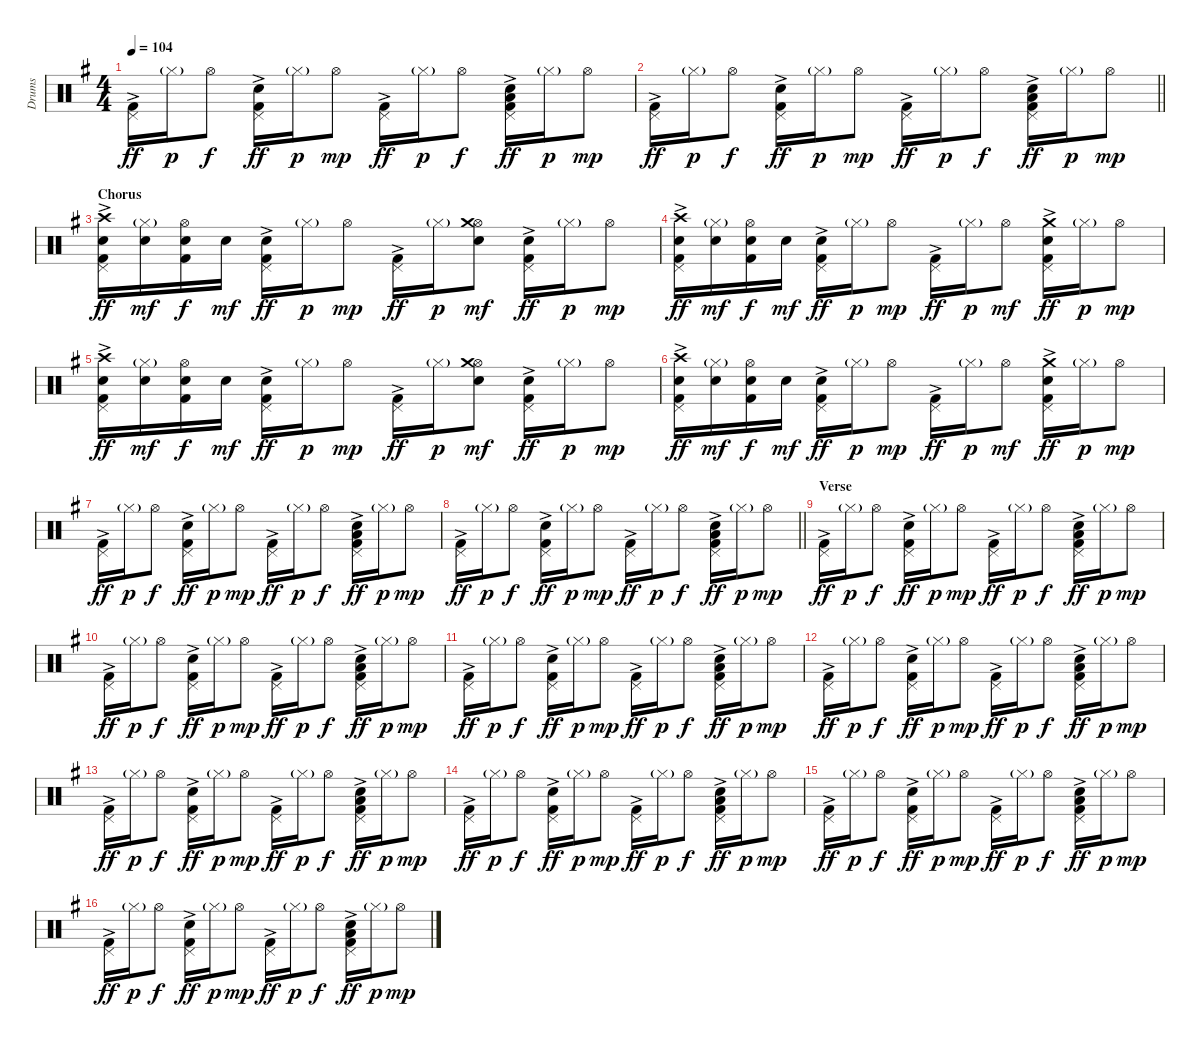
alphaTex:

\track ("Drums" "Drums") {instrument percussion}
\staff {score}
\articulation defaults
\ts (4 4)
\tempo 104
\clef neutral
\ks g
("Pedal Hi-Hat (hit)" "Kick (hit) 2"{ac}).16{dy ff} "Hi-Hat (closed)"{g}.16{dy p} "Hi-Hat (open)".8{dy f} ("Pedal Hi-Hat (hit)" "Snare (hit) 2"{ac} "Kick (hit) 2"{ac}).16{dy ff} "Hi-Hat (closed)"{g}.16{dy p} "Hi-Hat (open)".8{dy mp} ("Pedal Hi-Hat (hit)" "Kick (hit) 2"{ac}).16{dy ff} "Hi-Hat (closed)"{g}.16{dy p} "Hi-Hat (open)".8{dy f} ("Pedal Hi-Hat (hit)" "Snare (hit) 2"{ac} "Low Tom (hit)" "Kick (hit) 2"{ac}).16{dy ff} "Hi-Hat (closed)"{g}.16{dy p} "Hi-Hat (open)".8{dy mp} |
\barLineRight lightlight
("Pedal Hi-Hat (hit)" "Kick (hit) 2"{ac}).16{dy ff} "Hi-Hat (closed)"{g}.16{dy p} "Hi-Hat (open)".8{dy f} ("Pedal Hi-Hat (hit)" "Snare (hit) 2"{ac} "Kick (hit) 2"{ac}).16{dy ff} "Hi-Hat (closed)"{g}.16{dy p} "Hi-Hat (open)".8{dy mp} ("Pedal Hi-Hat (hit)" "Kick (hit) 2"{ac}).16{dy ff} "Hi-Hat (closed)"{g}.16{dy p} "Hi-Hat (open)".8{dy f} ("Pedal Hi-Hat (hit)" "Snare (hit) 2"{ac} "Low Tom (hit)" "Kick (hit) 2"{ac}).16{dy ff} "Hi-Hat (closed)"{g}.16{dy p} "Hi-Hat (open)".8{dy mp} |
\section ("" "Chorus")
("Pedal Hi-Hat (hit)" "Crash high (hit)" "Snare (hit) 2" "Kick (hit) 2"{ac}).16{dy ff} ("Hi-Hat (closed)"{g} "Snare (hit) 2").16{dy mf} ("Hi-Hat (open)" "Snare (hit) 2" "Kick (hit) 2").16{dy f} "Snare (hit) 2".16{dy mf} ("Pedal Hi-Hat (hit)" "Snare (hit) 2"{ac} "Kick (hit) 2"{ac}).16{dy ff} "Hi-Hat (closed)"{g}.16{dy p} "Hi-Hat (open)".8{dy mp} ("Pedal Hi-Hat (hit)" "Kick (hit) 2"{ac}).16{dy ff} "Hi-Hat (closed)"{g}.16{dy p} ("Hi-Hat (open)" "Crash medium (hit)" "Snare (hit) 2").8{dy mf} ("Pedal Hi-Hat (hit)" "Snare (hit) 2"{ac} "Kick (hit) 2"{ac}).16{dy ff} "Hi-Hat (closed)"{g}.16{dy p} "Hi-Hat (open)".8{dy mp} |
("Pedal Hi-Hat (hit)" "Crash high (hit)" "Snare (hit) 2" "Kick (hit) 2"{ac}).16{dy ff} ("Hi-Hat (closed)"{g} "Snare (hit) 2").16{dy mf} ("Hi-Hat (open)" "Snare (hit) 2" "Kick (hit) 2").16{dy f} "Snare (hit) 2".16{dy mf} ("Pedal Hi-Hat (hit)" "Snare (hit) 2"{ac} "Kick (hit) 2"{ac}).16{dy ff} "Hi-Hat (closed)"{g}.16{dy p} "Hi-Hat (open)".8{dy mp} ("Pedal Hi-Hat (hit)" "Kick (hit) 2"{ac}).16{dy ff} "Hi-Hat (closed)"{g}.16{dy p} "Hi-Hat (open)".8{dy mf} ("Pedal Hi-Hat (hit)" "Crash medium (hit)" "Snare (hit) 2"{ac} "Kick (hit) 2"{ac}).16{dy ff} "Hi-Hat (closed)"{g}.16{dy p} "Hi-Hat (open)".8{dy mp} |
("Pedal Hi-Hat (hit)" "Crash high (hit)" "Snare (hit) 2" "Kick (hit) 2"{ac}).16{dy ff} ("Hi-Hat (closed)"{g} "Snare (hit) 2").16{dy mf} ("Hi-Hat (open)" "Snare (hit) 2" "Kick (hit) 2").16{dy f} "Snare (hit) 2".16{dy mf} ("Pedal Hi-Hat (hit)" "Snare (hit) 2"{ac} "Kick (hit) 2"{ac}).16{dy ff} "Hi-Hat (closed)"{g}.16{dy p} "Hi-Hat (open)".8{dy mp} ("Pedal Hi-Hat (hit)" "Kick (hit) 2"{ac}).16{dy ff} "Hi-Hat (closed)"{g}.16{dy p} ("Hi-Hat (open)" "Crash medium (hit)" "Snare (hit) 2").8{dy mf} ("Pedal Hi-Hat (hit)" "Snare (hit) 2"{ac} "Kick (hit) 2"{ac}).16{dy ff} "Hi-Hat (closed)"{g}.16{dy p} "Hi-Hat (open)".8{dy mp} |
("Pedal Hi-Hat (hit)" "Crash high (hit)" "Snare (hit) 2" "Kick (hit) 2"{ac}).16{dy ff} ("Hi-Hat (closed)"{g} "Snare (hit) 2").16{dy mf} ("Hi-Hat (open)" "Snare (hit) 2" "Kick (hit) 2").16{dy f} "Snare (hit) 2".16{dy mf} ("Pedal Hi-Hat (hit)" "Snare (hit) 2"{ac} "Kick (hit) 2"{ac}).16{dy ff} "Hi-Hat (closed)"{g}.16{dy p} "Hi-Hat (open)".8{dy mp} ("Pedal Hi-Hat (hit)" "Kick (hit) 2"{ac}).16{dy ff} "Hi-Hat (closed)"{g}.16{dy p} "Hi-Hat (open)".8{dy mf} ("Pedal Hi-Hat (hit)" "Crash medium (hit)" "Snare (hit) 2"{ac} "Kick (hit) 2"{ac}).16{dy ff} "Hi-Hat (closed)"{g}.16{dy p} "Hi-Hat (open)".8{dy mp} |
("Pedal Hi-Hat (hit)" "Kick (hit) 2"{ac}).16{dy ff} "Hi-Hat (closed)"{g}.16{dy p} "Hi-Hat (open)".8{dy f} ("Pedal Hi-Hat (hit)" "Snare (hit) 2"{ac} "Kick (hit) 2"{ac}).16{dy ff} "Hi-Hat (closed)"{g}.16{dy p} "Hi-Hat (open)".8{dy mp} ("Pedal Hi-Hat (hit)" "Kick (hit) 2"{ac}).16{dy ff} "Hi-Hat (closed)"{g}.16{dy p} "Hi-Hat (open)".8{dy f} ("Pedal Hi-Hat (hit)" "Snare (hit) 2"{ac} "Low Tom (hit)" "Kick (hit) 2"{ac}).16{dy ff} "Hi-Hat (closed)"{g}.16{dy p} "Hi-Hat (open)".8{dy mp} |
\barLineRight lightlight
("Pedal Hi-Hat (hit)" "Kick (hit) 2"{ac}).16{dy ff} "Hi-Hat (closed)"{g}.16{dy p} "Hi-Hat (open)".8{dy f} ("Pedal Hi-Hat (hit)" "Snare (hit) 2"{ac} "Kick (hit) 2"{ac}).16{dy ff} "Hi-Hat (closed)"{g}.16{dy p} "Hi-Hat (open)".8{dy mp} ("Pedal Hi-Hat (hit)" "Kick (hit) 2"{ac}).16{dy ff} "Hi-Hat (closed)"{g}.16{dy p} "Hi-Hat (open)".8{dy f} ("Pedal Hi-Hat (hit)" "Snare (hit) 2"{ac} "Low Tom (hit)" "Kick (hit) 2"{ac}).16{dy ff} "Hi-Hat (closed)"{g}.16{dy p} "Hi-Hat (open)".8{dy mp} |
\section ("" "Verse")
("Pedal Hi-Hat (hit)" "Kick (hit) 2"{ac}).16{dy ff} "Hi-Hat (closed)"{g}.16{dy p} "Hi-Hat (open)".8{dy f} ("Pedal Hi-Hat (hit)" "Snare (hit) 2"{ac} "Kick (hit) 2"{ac}).16{dy ff} "Hi-Hat (closed)"{g}.16{dy p} "Hi-Hat (open)".8{dy mp} ("Pedal Hi-Hat (hit)" "Kick (hit) 2"{ac}).16{dy ff} "Hi-Hat (closed)"{g}.16{dy p} "Hi-Hat (open)".8{dy f} ("Pedal Hi-Hat (hit)" "Snare (hit) 2"{ac} "Low Tom (hit)" "Kick (hit) 2"{ac}).16{dy ff} "Hi-Hat (closed)"{g}.16{dy p} "Hi-Hat (open)".8{dy mp} |
("Pedal Hi-Hat (hit)" "Kick (hit) 2"{ac}).16{dy ff} "Hi-Hat (closed)"{g}.16{dy p} "Hi-Hat (open)".8{dy f} ("Pedal Hi-Hat (hit)" "Snare (hit) 2"{ac} "Kick (hit) 2"{ac}).16{dy ff} "Hi-Hat (closed)"{g}.16{dy p} "Hi-Hat (open)".8{dy mp} ("Pedal Hi-Hat (hit)" "Kick (hit) 2"{ac}).16{dy ff} "Hi-Hat (closed)"{g}.16{dy p} "Hi-Hat (open)".8{dy f} ("Pedal Hi-Hat (hit)" "Snare (hit) 2"{ac} "Low Tom (hit)" "Kick (hit) 2"{ac}).16{dy ff} "Hi-Hat (closed)"{g}.16{dy p} "Hi-Hat (open)".8{dy mp} |
("Pedal Hi-Hat (hit)" "Kick (hit) 2"{ac}).16{dy ff} "Hi-Hat (closed)"{g}.16{dy p} "Hi-Hat (open)".8{dy f} ("Pedal Hi-Hat (hit)" "Snare (hit) 2"{ac} "Kick (hit) 2"{ac}).16{dy ff} "Hi-Hat (closed)"{g}.16{dy p} "Hi-Hat (open)".8{dy mp} ("Pedal Hi-Hat (hit)" "Kick (hit) 2"{ac}).16{dy ff} "Hi-Hat (closed)"{g}.16{dy p} "Hi-Hat (open)".8{dy f} ("Pedal Hi-Hat (hit)" "Snare (hit) 2"{ac} "Low Tom (hit)" "Kick (hit) 2"{ac}).16{dy ff} "Hi-Hat (closed)"{g}.16{dy p} "Hi-Hat (open)".8{dy mp} |
("Pedal Hi-Hat (hit)" "Kick (hit) 2"{ac}).16{dy ff} "Hi-Hat (closed)"{g}.16{dy p} "Hi-Hat (open)".8{dy f} ("Pedal Hi-Hat (hit)" "Snare (hit) 2"{ac} "Kick (hit) 2"{ac}).16{dy ff} "Hi-Hat (closed)"{g}.16{dy p} "Hi-Hat (open)".8{dy mp} ("Pedal Hi-Hat (hit)" "Kick (hit) 2"{ac}).16{dy ff} "Hi-Hat (closed)"{g}.16{dy p} "Hi-Hat (open)".8{dy f} ("Pedal Hi-Hat (hit)" "Snare (hit) 2"{ac} "Low Tom (hit)" "Kick (hit) 2"{ac}).16{dy ff} "Hi-Hat (closed)"{g}.16{dy p} "Hi-Hat (open)".8{dy mp} |
("Pedal Hi-Hat (hit)" "Kick (hit) 2"{ac}).16{dy ff} "Hi-Hat (closed)"{g}.16{dy p} "Hi-Hat (open)".8{dy f} ("Pedal Hi-Hat (hit)" "Snare (hit) 2"{ac} "Kick (hit) 2"{ac}).16{dy ff} "Hi-Hat (closed)"{g}.16{dy p} "Hi-Hat (open)".8{dy mp} ("Pedal Hi-Hat (hit)" "Kick (hit) 2"{ac}).16{dy ff} "Hi-Hat (closed)"{g}.16{dy p} "Hi-Hat (open)".8{dy f} ("Pedal Hi-Hat (hit)" "Snare (hit) 2"{ac} "Low Tom (hit)" "Kick (hit) 2"{ac}).16{dy ff} "Hi-Hat (closed)"{g}.16{dy p} "Hi-Hat (open)".8{dy mp} |
("Pedal Hi-Hat (hit)" "Kick (hit) 2"{ac}).16{dy ff} "Hi-Hat (closed)"{g}.16{dy p} "Hi-Hat (open)".8{dy f} ("Pedal Hi-Hat (hit)" "Snare (hit) 2"{ac} "Kick (hit) 2"{ac}).16{dy ff} "Hi-Hat (closed)"{g}.16{dy p} "Hi-Hat (open)".8{dy mp} ("Pedal Hi-Hat (hit)" "Kick (hit) 2"{ac}).16{dy ff} "Hi-Hat (closed)"{g}.16{dy p} "Hi-Hat (open)".8{dy f} ("Pedal Hi-Hat (hit)" "Snare (hit) 2"{ac} "Low Tom (hit)" "Kick (hit) 2"{ac}).16{dy ff} "Hi-Hat (closed)"{g}.16{dy p} "Hi-Hat (open)".8{dy mp} |
("Pedal Hi-Hat (hit)" "Kick (hit) 2"{ac}).16{dy ff} "Hi-Hat (closed)"{g}.16{dy p} "Hi-Hat (open)".8{dy f} ("Pedal Hi-Hat (hit)" "Snare (hit) 2"{ac} "Kick (hit) 2"{ac}).16{dy ff} "Hi-Hat (closed)"{g}.16{dy p} "Hi-Hat (open)".8{dy mp} ("Pedal Hi-Hat (hit)" "Kick (hit) 2"{ac}).16{dy ff} "Hi-Hat (closed)"{g}.16{dy p} "Hi-Hat (open)".8{dy f} ("Pedal Hi-Hat (hit)" "Snare (hit) 2"{ac} "Low Tom (hit)" "Kick (hit) 2"{ac}).16{dy ff} "Hi-Hat (closed)"{g}.16{dy p} "Hi-Hat (open)".8{dy mp} |
("Pedal Hi-Hat (hit)" "Kick (hit) 2"{ac}).16{dy ff} "Hi-Hat (closed)"{g}.16{dy p} "Hi-Hat (open)".8{dy f} ("Pedal Hi-Hat (hit)" "Snare (hit) 2"{ac} "Kick (hit) 2"{ac}).16{dy ff} "Hi-Hat (closed)"{g}.16{dy p} "Hi-Hat (open)".8{dy mp} ("Pedal Hi-Hat (hit)" "Kick (hit) 2"{ac}).16{dy ff} "Hi-Hat (closed)"{g}.16{dy p} "Hi-Hat (open)".8{dy f} ("Pedal Hi-Hat (hit)" "Snare (hit) 2"{ac} "Low Tom (hit)" "Kick (hit) 2"{ac}).16{dy ff} "Hi-Hat (closed)"{g}.16{dy p} "Hi-Hat (open)".8{dy mp}
